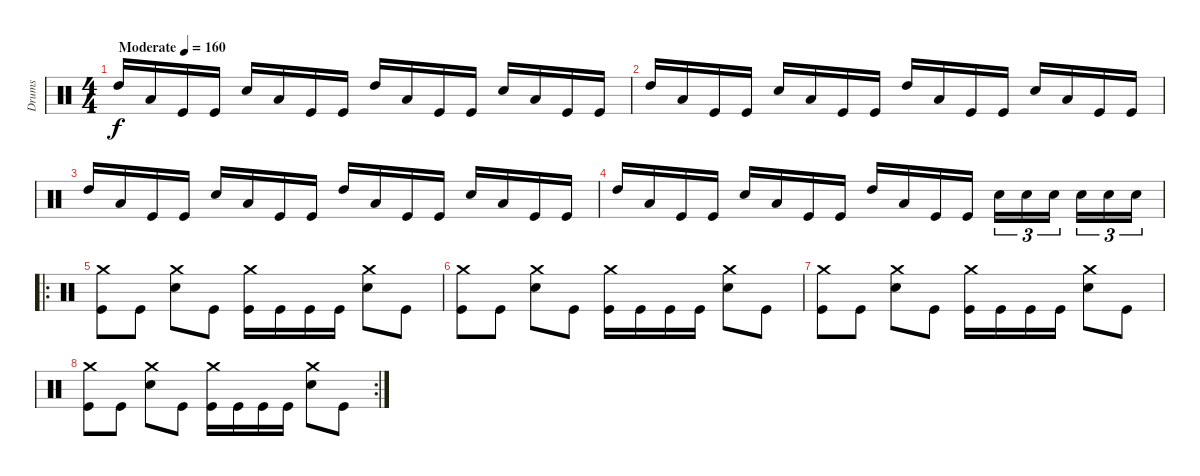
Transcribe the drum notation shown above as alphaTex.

\track ("Drums" "Drums") {instrument percussion}
\staff {score}
\articulation defaults
\ts (4 4)
\tempo (160 "Moderate")
\clef neutral
\ks c "High Tom (hit)".16{dy f} "Low Tom (hit)".16 "Kick (hit)".16 "Kick (hit)".16 "Snare (hit) 2".16 "Low Tom (hit)".16 "Kick (hit)".16 "Kick (hit)".16 "High Tom (hit)".16 "Low Tom (hit)".16 "Kick (hit)".16 "Kick (hit)".16 "Snare (hit) 2".16 "Low Tom (hit)".16 "Kick (hit)".16 "Kick (hit)".16
|
"High Tom (hit)".16 "Low Tom (hit)".16 "Kick (hit)".16 "Kick (hit)".16 "Snare (hit) 2".16 "Low Tom (hit)".16 "Kick (hit)".16 "Kick (hit)".16 "High Tom (hit)".16 "Low Tom (hit)".16 "Kick (hit)".16 "Kick (hit)".16 "Snare (hit) 2".16 "Low Tom (hit)".16 "Kick (hit)".16 "Kick (hit)".16 |
"High Tom (hit)".16 "Low Tom (hit)".16 "Kick (hit)".16 "Kick (hit)".16 "Snare (hit) 2".16 "Low Tom (hit)".16 "Kick (hit)".16 "Kick (hit)".16 "High Tom (hit)".16 "Low Tom (hit)".16 "Kick (hit)".16 "Kick (hit)".16 "Snare (hit) 2".16 "Low Tom (hit)".16 "Kick (hit)".16 "Kick (hit)".16 |
"High Tom (hit)".16 "Low Tom (hit)".16 "Kick (hit)".16 "Kick (hit)".16 "Snare (hit) 2".16 "Low Tom (hit)".16 "Kick (hit)".16 "Kick (hit)".16 "High Tom (hit)".16 "Low Tom (hit)".16 "Kick (hit)".16 "Kick (hit)".16 "Snare (hit) 2".16{tu (3 2)} "Snare (hit) 2".16{tu (3 2)} "Snare (hit) 2".16{tu (3 2) beam splitsecondary} "Snare (hit) 2".16{tu (3 2)} "Snare (hit) 2".16{tu (3 2)} "Snare (hit) 2".16{tu (3 2)} |
\ro
("Crash medium (hit)" "Kick (hit)").8 "Kick (hit)".8 ("Crash medium (hit)" "Snare (hit) 2").8 "Kick (hit)".8 ("Crash medium (hit)" "Kick (hit)").16 "Kick (hit)".16 "Kick (hit)".16 "Kick (hit)".16 ("Crash medium (hit)" "Snare (hit) 2").8 "Kick (hit)".8 |
("Crash medium (hit)" "Kick (hit)").8 "Kick (hit)".8 ("Crash medium (hit)" "Snare (hit) 2").8 "Kick (hit)".8 ("Crash medium (hit)" "Kick (hit)").16 "Kick (hit)".16 "Kick (hit)".16 "Kick (hit)".16 ("Crash medium (hit)" "Snare (hit) 2").8 "Kick (hit)".8 |
("Crash medium (hit)" "Kick (hit)").8 "Kick (hit)".8 ("Crash medium (hit)" "Snare (hit) 2").8 "Kick (hit)".8 ("Crash medium (hit)" "Kick (hit)").16 "Kick (hit)".16 "Kick (hit)".16 "Kick (hit)".16 ("Crash medium (hit)" "Snare (hit) 2").8 "Kick (hit)".8 |
\rc 2
("Crash medium (hit)" "Kick (hit)").8 "Kick (hit)".8 ("Crash medium (hit)" "Snare (hit) 2").8 "Kick (hit)".8 ("Crash medium (hit)" "Kick (hit)").16 "Kick (hit)".16 "Kick (hit)".16 "Kick (hit)".16 ("Crash medium (hit)" "Snare (hit) 2").8 "Kick (hit)".8
